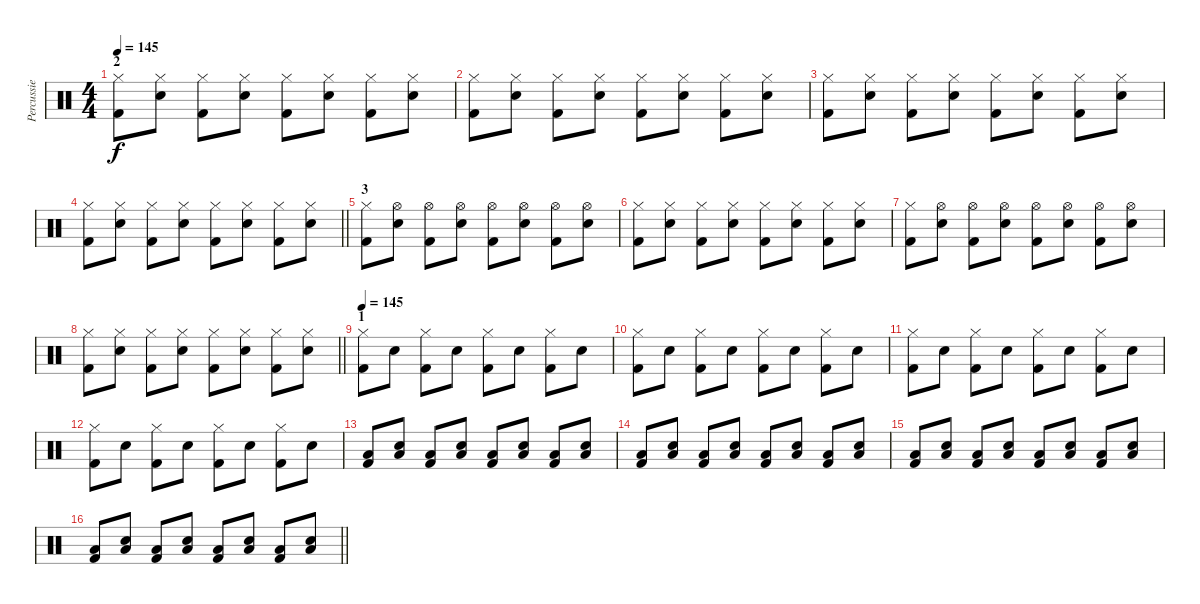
\track ("Percussie" "Percussie") {instrument percussion}
\staff {score}
\articulation defaults
\ts (4 4)
\section ("" "2")
\tempo 145
\clef neutral
\ks c
("Hi-Hat (closed)" "Kick (hit) 2").8{dy f} ("Hi-Hat (closed)" "Snare (hit) 2").8 ("Hi-Hat (closed)" "Kick (hit) 2").8 ("Hi-Hat (closed)" "Snare (hit) 2").8 ("Hi-Hat (closed)" "Kick (hit) 2").8 ("Hi-Hat (closed)" "Snare (hit) 2").8 ("Hi-Hat (closed)" "Kick (hit) 2").8 ("Hi-Hat (closed)" "Snare (hit) 2").8 |
("Hi-Hat (closed)" "Kick (hit) 2").8 ("Hi-Hat (closed)" "Snare (hit) 2").8 ("Hi-Hat (closed)" "Kick (hit) 2").8 ("Hi-Hat (closed)" "Snare (hit) 2").8 ("Hi-Hat (closed)" "Kick (hit) 2").8 ("Hi-Hat (closed)" "Snare (hit) 2").8 ("Hi-Hat (closed)" "Kick (hit) 2").8 ("Hi-Hat (closed)" "Snare (hit) 2").8 |
("Hi-Hat (closed)" "Kick (hit) 2").8 ("Hi-Hat (closed)" "Snare (hit) 2").8 ("Hi-Hat (closed)" "Kick (hit) 2").8 ("Hi-Hat (closed)" "Snare (hit) 2").8 ("Hi-Hat (closed)" "Kick (hit) 2").8 ("Hi-Hat (closed)" "Snare (hit) 2").8 ("Hi-Hat (closed)" "Kick (hit) 2").8 ("Hi-Hat (closed)" "Snare (hit) 2").8 |
\barLineRight lightlight
("Hi-Hat (closed)" "Kick (hit) 2").8 ("Hi-Hat (closed)" "Snare (hit) 2").8 ("Hi-Hat (closed)" "Kick (hit) 2").8 ("Hi-Hat (closed)" "Snare (hit) 2").8 ("Hi-Hat (closed)" "Kick (hit) 2").8 ("Hi-Hat (closed)" "Snare (hit) 2").8 ("Hi-Hat (closed)" "Kick (hit) 2").8 ("Hi-Hat (closed)" "Snare (hit) 2").8 |
\section ("" "3")
("Hi-Hat (closed)" "Kick (hit) 2").8 ("Hi-Hat (open)" "Snare (hit) 2").8 ("Hi-Hat (open)" "Kick (hit) 2").8 ("Hi-Hat (open)" "Snare (hit) 2").8 ("Hi-Hat (open)" "Kick (hit) 2").8 ("Hi-Hat (open)" "Snare (hit) 2").8 ("Hi-Hat (open)" "Kick (hit) 2").8 ("Hi-Hat (open)" "Snare (hit) 2").8 |
("Hi-Hat (closed)" "Kick (hit) 2").8 ("Hi-Hat (closed)" "Snare (hit) 2").8 ("Hi-Hat (closed)" "Kick (hit) 2").8 ("Hi-Hat (closed)" "Snare (hit) 2").8 ("Hi-Hat (closed)" "Kick (hit) 2").8 ("Hi-Hat (closed)" "Snare (hit) 2").8 ("Hi-Hat (closed)" "Kick (hit) 2").8 ("Hi-Hat (closed)" "Snare (hit) 2").8 |
("Hi-Hat (closed)" "Kick (hit) 2").8 ("Hi-Hat (open)" "Snare (hit) 2").8 ("Hi-Hat (open)" "Kick (hit) 2").8 ("Hi-Hat (open)" "Snare (hit) 2").8 ("Hi-Hat (open)" "Kick (hit) 2").8 ("Hi-Hat (open)" "Snare (hit) 2").8 ("Hi-Hat (open)" "Kick (hit) 2").8 ("Hi-Hat (open)" "Snare (hit) 2").8 |
\barLineRight lightlight
("Hi-Hat (closed)" "Kick (hit) 2").8 ("Hi-Hat (closed)" "Snare (hit) 2").8 ("Hi-Hat (closed)" "Kick (hit) 2").8 ("Hi-Hat (closed)" "Snare (hit) 2").8 ("Hi-Hat (closed)" "Kick (hit) 2").8 ("Hi-Hat (closed)" "Snare (hit) 2").8 ("Hi-Hat (closed)" "Kick (hit) 2").8 ("Hi-Hat (closed)" "Snare (hit) 2").8 |
\section ("" "1")
\tempo 145
("Hi-Hat (closed)" "Kick (hit) 2").8 "Snare (hit) 2".8 ("Hi-Hat (closed)" "Kick (hit) 2").8 "Snare (hit) 2".8 ("Hi-Hat (closed)" "Kick (hit) 2").8 "Snare (hit) 2".8 ("Hi-Hat (closed)" "Kick (hit) 2").8 "Snare (hit) 2".8 |
("Hi-Hat (closed)" "Kick (hit) 2").8 "Snare (hit) 2".8 ("Hi-Hat (closed)" "Kick (hit) 2").8 "Snare (hit) 2".8 ("Hi-Hat (closed)" "Kick (hit) 2").8 "Snare (hit) 2".8 ("Hi-Hat (closed)" "Kick (hit) 2").8 "Snare (hit) 2".8 |
("Hi-Hat (closed)" "Kick (hit) 2").8 "Snare (hit) 2".8 ("Hi-Hat (closed)" "Kick (hit) 2").8 "Snare (hit) 2".8 ("Hi-Hat (closed)" "Kick (hit) 2").8 "Snare (hit) 2".8 ("Hi-Hat (closed)" "Kick (hit) 2").8 "Snare (hit) 2".8 |
("Hi-Hat (closed)" "Kick (hit) 2").8 "Snare (hit) 2".8 ("Hi-Hat (closed)" "Kick (hit) 2").8 "Snare (hit) 2".8 ("Hi-Hat (closed)" "Kick (hit) 2").8 "Snare (hit) 2".8 ("Hi-Hat (closed)" "Kick (hit) 2").8 "Snare (hit) 2".8 |
("Low Floor Tom (hit)" "Kick (hit) 2").8 ("Low Floor Tom (hit)" "Snare (hit) 2").8 ("Low Floor Tom (hit)" "Kick (hit) 2").8 ("Low Floor Tom (hit)" "Snare (hit) 2").8 ("Low Floor Tom (hit)" "Kick (hit) 2").8 ("Low Floor Tom (hit)" "Snare (hit) 2").8 ("Low Floor Tom (hit)" "Kick (hit) 2").8 ("Low Floor Tom (hit)" "Snare (hit) 2").8 |
("Low Floor Tom (hit)" "Kick (hit) 2").8 ("Low Floor Tom (hit)" "Snare (hit) 2").8 ("Low Floor Tom (hit)" "Kick (hit) 2").8 ("Low Floor Tom (hit)" "Snare (hit) 2").8 ("Low Floor Tom (hit)" "Kick (hit) 2").8 ("Low Floor Tom (hit)" "Snare (hit) 2").8 ("Low Floor Tom (hit)" "Kick (hit) 2").8 ("Low Floor Tom (hit)" "Snare (hit) 2").8 |
("Low Floor Tom (hit)" "Kick (hit) 2").8 ("Low Floor Tom (hit)" "Snare (hit) 2").8 ("Low Floor Tom (hit)" "Kick (hit) 2").8 ("Low Floor Tom (hit)" "Snare (hit) 2").8 ("Low Floor Tom (hit)" "Kick (hit) 2").8 ("Low Floor Tom (hit)" "Snare (hit) 2").8 ("Low Floor Tom (hit)" "Kick (hit) 2").8 ("Low Floor Tom (hit)" "Snare (hit) 2").8 |
\barLineRight lightlight
("Low Floor Tom (hit)" "Kick (hit) 2").8 ("Low Floor Tom (hit)" "Snare (hit) 2").8 ("Low Floor Tom (hit)" "Kick (hit) 2").8 ("Low Floor Tom (hit)" "Snare (hit) 2").8 ("Low Floor Tom (hit)" "Kick (hit) 2").8 ("Low Floor Tom (hit)" "Snare (hit) 2").8 ("Low Floor Tom (hit)" "Kick (hit) 2").8 ("Low Floor Tom (hit)" "Snare (hit) 2").8
